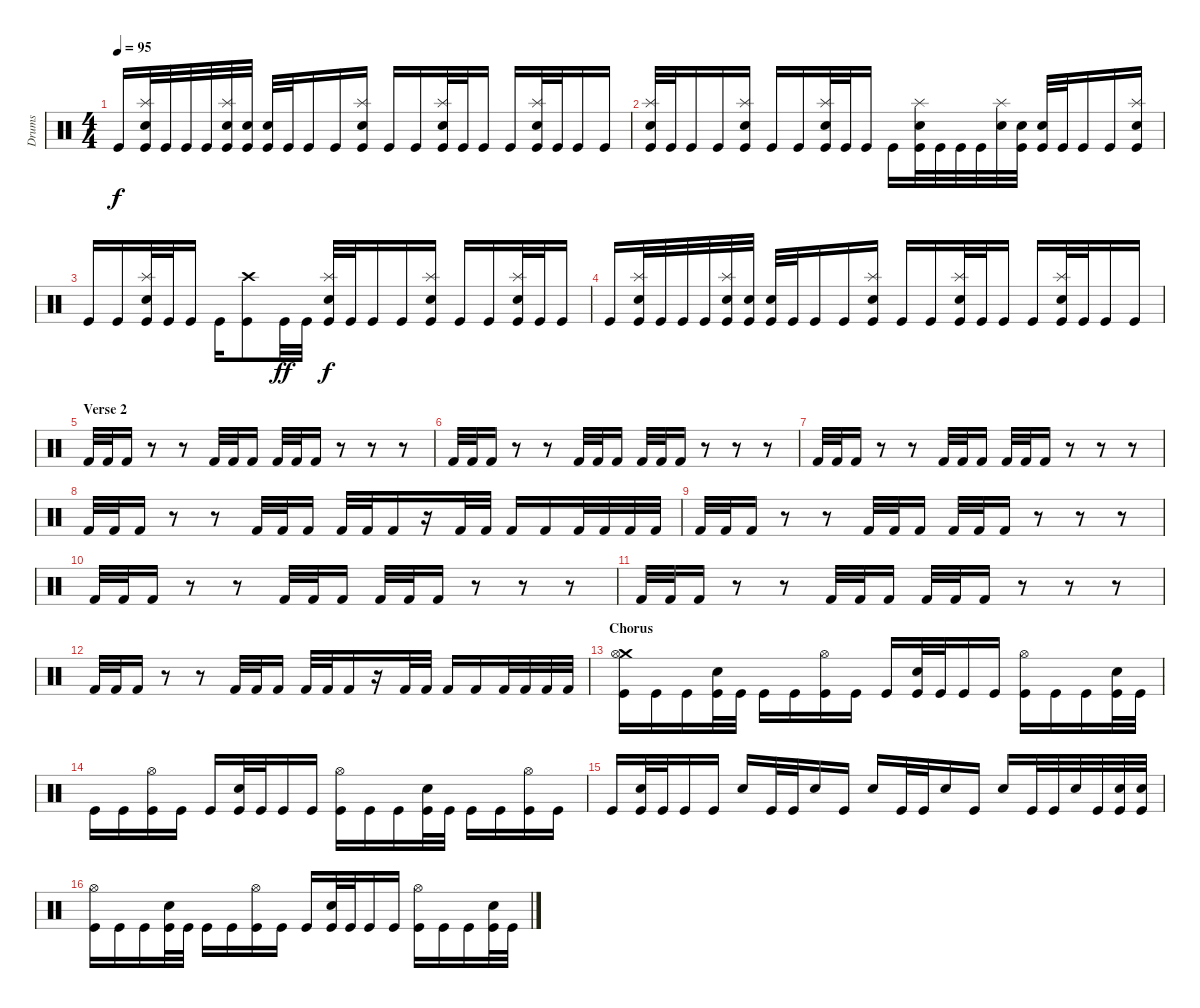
\track ("Drums" "Drums") {instrument percussion}
\staff {score}
\articulation defaults
\ts (4 4)
\tempo 95
\clef neutral
\ks c "Kick (hit)".16{dy f}
("Splash (hit)" "Electric Snare (hit)" "Kick (hit)").32 "Kick (hit)".32 "Kick (hit)".32 "Kick (hit)".32 ("Splash (hit)" "Electric Snare (hit)" "Kick (hit)").32 ("Electric Snare (hit)" "Kick (hit)").32 ("Electric Snare (hit)" "Kick (hit)").32 "Kick (hit)".32 "Kick (hit)".16 "Kick (hit)".16 ("Splash (hit)" "Electric Snare (hit)" "Kick (hit)").16 "Kick (hit)".16 "Kick (hit)".16 ("Splash (hit)" "Electric Snare (hit)" "Kick (hit)").32 "Kick (hit)".32 "Kick (hit)".16 "Kick (hit)".16 ("Splash (hit)" "Electric Snare (hit)" "Kick (hit)").32 "Kick (hit)".32 "Kick (hit)".16 "Kick (hit)".16 |
("Splash (hit)" "Electric Snare (hit)" "Kick (hit)").32 "Kick (hit)".32 "Kick (hit)".16 "Kick (hit)".16 ("Splash (hit)" "Electric Snare (hit)" "Kick (hit)").16 "Kick (hit)".16 "Kick (hit)".16 ("Splash (hit)" "Electric Snare (hit)" "Kick (hit)").32 "Kick (hit)".32 "Kick (hit)".16 "Kick (hit)".16 ("Splash (hit)" "Electric Snare (hit)" "Kick (hit)").32 "Kick (hit)".32 "Kick (hit)".32 "Kick (hit)".32 ("Splash (hit)" "Electric Snare (hit)").32 ("Electric Snare (hit)" "Kick (hit)").32 ("Electric Snare (hit)" "Kick (hit)").32 "Kick (hit)".32 "Kick (hit)".16 "Kick (hit)".16 ("Splash (hit)" "Electric Snare (hit)" "Kick (hit)").16 |
"Kick (hit)".16 "Kick (hit)".16 ("Splash (hit)" "Electric Snare (hit)" "Kick (hit)").32 "Kick (hit)".32 "Kick (hit)".16 "Kick (hit)".16 ("Crash high (hit)" "Kick (hit)").8 "Kick (hit)".32{dy ff} "Kick (hit)".32 ("Splash (hit)" "Electric Snare (hit)" "Kick (hit)").32{dy f} "Kick (hit)".32 "Kick (hit)".16 "Kick (hit)".16 ("Splash (hit)" "Electric Snare (hit)" "Kick (hit)").16 "Kick (hit)".16 "Kick (hit)".16 ("Splash (hit)" "Electric Snare (hit)" "Kick (hit)").32 "Kick (hit)".32 "Kick (hit)".16 |
"Kick (hit)".16 ("Splash (hit)" "Electric Snare (hit)" "Kick (hit)").32 "Kick (hit)".32 "Kick (hit)".32 "Kick (hit)".32 ("Splash (hit)" "Electric Snare (hit)" "Kick (hit)").32 ("Electric Snare (hit)" "Kick (hit)").32 ("Electric Snare (hit)" "Kick (hit)").32 "Kick (hit)".32 "Kick (hit)".16 "Kick (hit)".16 ("Splash (hit)" "Electric Snare (hit)" "Kick (hit)").16 "Kick (hit)".16 "Kick (hit)".16 ("Splash (hit)" "Electric Snare (hit)" "Kick (hit)").32 "Kick (hit)".32 "Kick (hit)".16 "Kick (hit)".16 ("Splash (hit)" "Electric Snare (hit)" "Kick (hit)").32 "Kick (hit)".32 "Kick (hit)".16 "Kick (hit)".16 |
\section ("" "Verse 2")
"Kick (hit) 2".32 "Kick (hit) 2".32 "Kick (hit) 2".16 r.8 r.8 "Kick (hit) 2".32 "Kick (hit) 2".32 "Kick (hit) 2".16 "Kick (hit) 2".32 "Kick (hit) 2".32 "Kick (hit) 2".16 r.8 r.8 r.8 |
"Kick (hit) 2".32 "Kick (hit) 2".32 "Kick (hit) 2".16 r.8 r.8 "Kick (hit) 2".32 "Kick (hit) 2".32 "Kick (hit) 2".16 "Kick (hit) 2".32 "Kick (hit) 2".32 "Kick (hit) 2".16 r.8 r.8 r.8 |
"Kick (hit) 2".32 "Kick (hit) 2".32 "Kick (hit) 2".16 r.8 r.8 "Kick (hit) 2".32 "Kick (hit) 2".32 "Kick (hit) 2".16 "Kick (hit) 2".32 "Kick (hit) 2".32 "Kick (hit) 2".16 r.8 r.8 r.8 |
"Kick (hit) 2".32 "Kick (hit) 2".32 "Kick (hit) 2".16 r.8 r.8 "Kick (hit) 2".32 "Kick (hit) 2".32 "Kick (hit) 2".16 "Kick (hit) 2".32 "Kick (hit) 2".32 "Kick (hit) 2".16 r.16 "Kick (hit) 2".32 "Kick (hit) 2".32 "Kick (hit) 2".16 "Kick (hit) 2".16 "Kick (hit) 2".32 "Kick (hit) 2".32 "Kick (hit) 2".32 "Kick (hit) 2".32 |
"Kick (hit) 2".32 "Kick (hit) 2".32 "Kick (hit) 2".16 r.8 r.8 "Kick (hit) 2".32 "Kick (hit) 2".32 "Kick (hit) 2".16 "Kick (hit) 2".32 "Kick (hit) 2".32 "Kick (hit) 2".16 r.8 r.8 r.8 |
"Kick (hit) 2".32 "Kick (hit) 2".32 "Kick (hit) 2".16 r.8 r.8 "Kick (hit) 2".32 "Kick (hit) 2".32 "Kick (hit) 2".16 "Kick (hit) 2".32 "Kick (hit) 2".32 "Kick (hit) 2".16 r.8 r.8 r.8 |
"Kick (hit) 2".32 "Kick (hit) 2".32 "Kick (hit) 2".16 r.8 r.8 "Kick (hit) 2".32 "Kick (hit) 2".32 "Kick (hit) 2".16 "Kick (hit) 2".32 "Kick (hit) 2".32 "Kick (hit) 2".16 r.8 r.8 r.8 |
"Kick (hit) 2".32 "Kick (hit) 2".32 "Kick (hit) 2".16 r.8 r.8 "Kick (hit) 2".32 "Kick (hit) 2".32 "Kick (hit) 2".16 "Kick (hit) 2".32 "Kick (hit) 2".32 "Kick (hit) 2".16 r.16 "Kick (hit) 2".32 "Kick (hit) 2".32 "Kick (hit) 2".16 "Kick (hit) 2".16 "Kick (hit) 2".32 "Kick (hit) 2".32 "Kick (hit) 2".32 "Kick (hit) 2".32 |
\section ("" "Chorus")
("Crash medium (hit)" "Hi-Hat (open)" "Kick (hit)").16 "Kick (hit)".16 "Kick (hit)".16 ("Electric Snare (hit)" "Kick (hit)").32 "Kick (hit)".32 "Kick (hit)".16 "Kick (hit)".16 ("Hi-Hat (open)" "Kick (hit)").16 "Kick (hit)".16 "Kick (hit)".16 ("Electric Snare (hit)" "Kick (hit)").32 "Kick (hit)".32 "Kick (hit)".16 "Kick (hit)".16 ("Hi-Hat (open)" "Kick (hit)").16 "Kick (hit)".16 "Kick (hit)".16 ("Electric Snare (hit)" "Kick (hit)").32 "Kick (hit)".32 |
"Kick (hit)".16 "Kick (hit)".16 ("Hi-Hat (open)" "Kick (hit)").16 "Kick (hit)".16 "Kick (hit)".16 ("Electric Snare (hit)" "Kick (hit)").32 "Kick (hit)".32 "Kick (hit)".16 "Kick (hit)".16 ("Hi-Hat (open)" "Kick (hit)").16 "Kick (hit)".16 "Kick (hit)".16 ("Electric Snare (hit)" "Kick (hit)").32 "Kick (hit)".32 "Kick (hit)".16 "Kick (hit)".16 ("Hi-Hat (open)" "Kick (hit)").16 "Kick (hit)".16 |
"Kick (hit)".16 ("Electric Snare (hit)" "Kick (hit)").32 "Kick (hit)".32 "Kick (hit)".16 "Kick (hit)".16 "Electric Snare (hit)".16 "Kick (hit)".32 "Kick (hit)".32 "Electric Snare (hit)".16 "Kick (hit)".16 "Electric Snare (hit)".16 "Kick (hit)".32 "Kick (hit)".32 "Electric Snare (hit)".16 "Kick (hit)".16 "Electric Snare (hit)".16 "Kick (hit)".32 "Kick (hit)".32 "Electric Snare (hit)".32 "Kick (hit)".32 ("Electric Snare (hit)" "Kick (hit)").32 ("Electric Snare (hit)" "Kick (hit)").32 |
("Hi-Hat (open)" "Kick (hit)").16 "Kick (hit)".16 "Kick (hit)".16 ("Electric Snare (hit)" "Kick (hit)").32 "Kick (hit)".32 "Kick (hit)".16 "Kick (hit)".16 ("Hi-Hat (open)" "Kick (hit)").16 "Kick (hit)".16 "Kick (hit)".16 ("Electric Snare (hit)" "Kick (hit)").32 "Kick (hit)".32 "Kick (hit)".16 "Kick (hit)".16 ("Hi-Hat (open)" "Kick (hit)").16 "Kick (hit)".16 "Kick (hit)".16 ("Electric Snare (hit)" "Kick (hit)").32 "Kick (hit)".32
